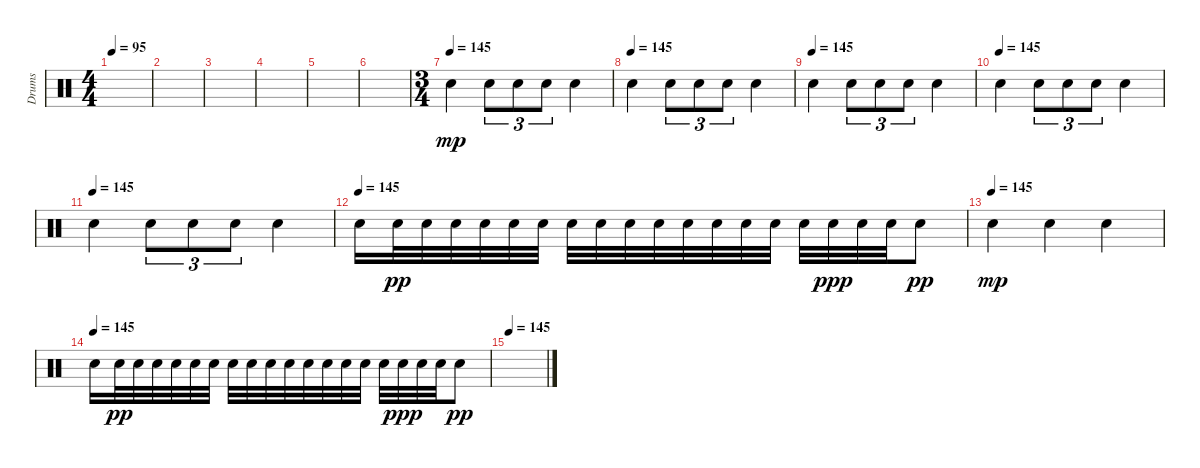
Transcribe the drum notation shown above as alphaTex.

\track ("Drums" "Drums") {instrument percussion}
\staff {score}
\articulation defaults
\ts (4 4)
\tempo 95
\clef neutral
\ks c
|
|
|
|
|
|
\ts (3 4)
\tempo (145)
"Electric Snare (hit)".4{dy mp} "Electric Snare (hit)".8{tu (3 2)} "Electric Snare (hit)".8{tu (3 2)} "Electric Snare (hit)".8{tu (3 2)} "Electric Snare (hit)".4 |
\tempo (145)
"Electric Snare (hit)".4 "Electric Snare (hit)".8{tu (3 2)} "Electric Snare (hit)".8{tu (3 2)} "Electric Snare (hit)".8{tu (3 2)} "Electric Snare (hit)".4 |
\tempo (145)
"Electric Snare (hit)".4 "Electric Snare (hit)".8{tu (3 2)} "Electric Snare (hit)".8{tu (3 2)} "Electric Snare (hit)".8{tu (3 2)} "Electric Snare (hit)".4 |
\tempo (145)
"Electric Snare (hit)".4 "Electric Snare (hit)".8{tu (3 2)} "Electric Snare (hit)".8{tu (3 2)} "Electric Snare (hit)".8{tu (3 2)} "Electric Snare (hit)".4 |
\tempo (145)
"Electric Snare (hit)".4 "Electric Snare (hit)".8{tu (3 2)} "Electric Snare (hit)".8{tu (3 2)} "Electric Snare (hit)".8{tu (3 2)} "Electric Snare (hit)".4 |
\tempo (145)
"Electric Snare (hit)".16 "Electric Snare (hit)".32{dy pp} "Electric Snare (hit)".32 "Electric Snare (hit)".32 "Electric Snare (hit)".32 "Electric Snare (hit)".32 "Electric Snare (hit)".32 "Electric Snare (hit)".32 "Electric Snare (hit)".32 "Electric Snare (hit)".32 "Electric Snare (hit)".32 "Electric Snare (hit)".32 "Electric Snare (hit)".32 "Electric Snare (hit)".32 "Electric Snare (hit)".32 "Electric Snare (hit)".32 "Electric Snare (hit)".32{dy ppp} "Electric Snare (hit)".32 "Electric Snare (hit)".32 "Electric Snare (hit)".8{dy pp} |
\tempo (145)
"Electric Snare (hit)".4{dy mp} "Electric Snare (hit)".4 "Electric Snare (hit)".4 |
\tempo (145)
"Electric Snare (hit)".16 "Electric Snare (hit)".32{dy pp} "Electric Snare (hit)".32 "Electric Snare (hit)".32 "Electric Snare (hit)".32 "Electric Snare (hit)".32 "Electric Snare (hit)".32 "Electric Snare (hit)".32 "Electric Snare (hit)".32 "Electric Snare (hit)".32 "Electric Snare (hit)".32 "Electric Snare (hit)".32 "Electric Snare (hit)".32 "Electric Snare (hit)".32 "Electric Snare (hit)".32 "Electric Snare (hit)".32 "Electric Snare (hit)".32{dy ppp} "Electric Snare (hit)".32 "Electric Snare (hit)".32 "Electric Snare (hit)".8{dy pp} |
\tempo 145
